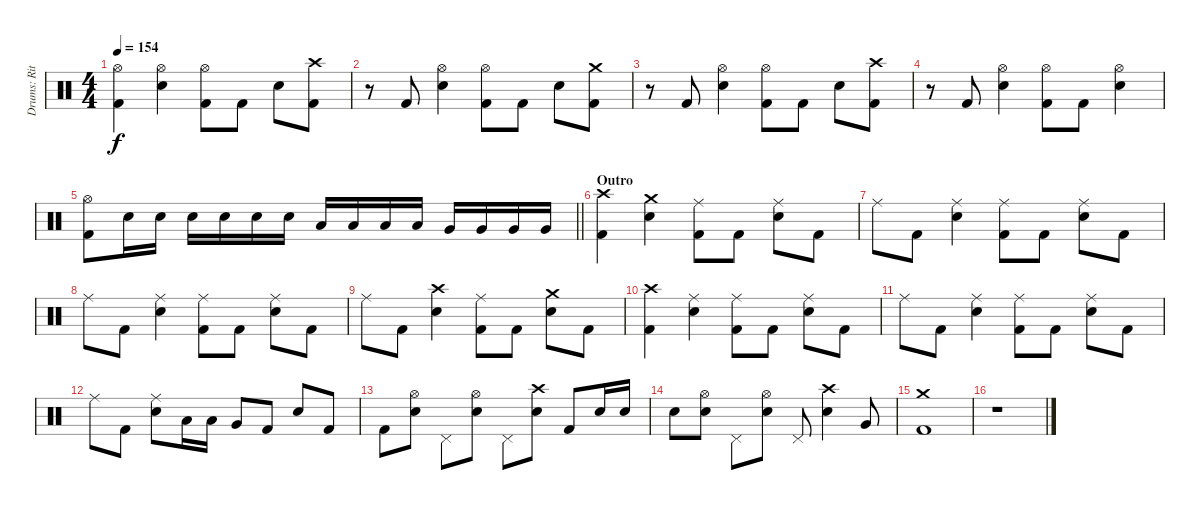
\track ("Drums: Ritsu Tainaka" "Drums: Rit") {instrument percussion}
\staff {score}
\articulation defaults
\ts (4 4)
\tempo 154
\clef neutral
\ks c
("Hi-Hat (open)" "Kick (hit) 2").4{dy f} ("Hi-Hat (open)" "Electric Snare (hit)").4 ("Hi-Hat (open)" "Kick (hit) 2").8 "Kick (hit) 2".8 "Electric Snare (hit)".8 ("Crash high (hit)" "Kick (hit) 2").8 |
r.8 "Kick (hit) 2".8 ("Hi-Hat (open)" "Electric Snare (hit)").4 ("Hi-Hat (open)" "Kick (hit) 2").8 "Kick (hit) 2".8 "Electric Snare (hit)".8 ("Crash medium (hit)" "Kick (hit) 2").8 |
r.8 "Kick (hit) 2".8 ("Hi-Hat (open)" "Electric Snare (hit)").4 ("Hi-Hat (open)" "Kick (hit) 2").8 "Kick (hit) 2".8 "Electric Snare (hit)".8 ("Crash high (hit)" "Kick (hit) 2").8 |
r.8 "Kick (hit) 2".8 ("Hi-Hat (open)" "Electric Snare (hit)").4 ("Hi-Hat (open)" "Kick (hit) 2").8 "Kick (hit) 2".8 ("Hi-Hat (open)" "Electric Snare (hit)").4 |
\barLineRight lightlight
("Hi-Hat (open)" "Kick (hit) 2").8 "Electric Snare (hit)".16 "Electric Snare (hit)".16 "Electric Snare (hit)".16 "Electric Snare (hit)".16 "Electric Snare (hit)".16 "Electric Snare (hit)".16 "Low Tom (hit)".16 "Low Tom (hit)".16 "Low Tom (hit)".16 "Low Tom (hit)".16 "Very Low Tom (hit)".16 "Very Low Tom (hit)".16 "Very Low Tom (hit)".16 "Very Low Tom (hit)".16 |
\section ("" "Outro")
("Crash high (hit)" "Kick (hit) 2").4 ("Crash medium (hit)" "Electric Snare (hit)").4 ("Ride (middle)" "Kick (hit) 2").8 "Kick (hit) 2".8 ("Ride (middle)" "Electric Snare (hit)").8 "Kick (hit) 2".8 |
"Ride (middle)".8 "Kick (hit) 2".8 ("Ride (middle)" "Electric Snare (hit)").4 ("Ride (middle)" "Kick (hit) 2").8 "Kick (hit) 2".8 ("Ride (middle)" "Electric Snare (hit)").8 "Kick (hit) 2".8 |
"Ride (middle)".8 "Kick (hit) 2".8 ("Ride (middle)" "Electric Snare (hit)").4 ("Ride (middle)" "Kick (hit) 2").8 "Kick (hit) 2".8 ("Ride (middle)" "Electric Snare (hit)").8 "Kick (hit) 2".8 |
"Ride (middle)".8 "Kick (hit) 2".8 ("Crash high (hit)" "Electric Snare (hit)").4 ("Ride (middle)" "Kick (hit) 2").8 "Kick (hit) 2".8 ("Crash medium (hit)" "Electric Snare (hit)").8 "Kick (hit) 2".8 |
("Crash high (hit)" "Kick (hit) 2").4 ("Ride (middle)" "Electric Snare (hit)").4 ("Ride (middle)" "Kick (hit) 2").8 "Kick (hit) 2".8 ("Ride (middle)" "Electric Snare (hit)").8 "Kick (hit) 2".8 |
"Ride (middle)".8 "Kick (hit) 2".8 ("Ride (middle)" "Electric Snare (hit)").4 ("Ride (middle)" "Kick (hit) 2").8 "Kick (hit) 2".8 ("Ride (middle)" "Electric Snare (hit)").8 "Kick (hit) 2".8 |
"Ride (middle)".8 "Kick (hit) 2".8 ("Ride (middle)" "Electric Snare (hit)").8 "Low Tom (hit)".16 "Low Tom (hit)".16 "Very Low Tom (hit)".8 "Kick (hit) 2".8 "Electric Snare (hit)".8 "Kick (hit) 2".8 |
"Kick (hit) 2".8 ("Hi-Hat (open)" "Electric Snare (hit)").8 "Pedal Hi-Hat (hit)".8 ("Hi-Hat (open)" "Electric Snare (hit)").8 "Pedal Hi-Hat (hit)".8 ("Crash high (hit)" "Electric Snare (hit)").8 "Kick (hit) 2".8 "Electric Snare (hit)".16 "Electric Snare (hit)".16 |
"Electric Snare (hit)".8 ("Hi-Hat (open)" "Electric Snare (hit)").8 "Pedal Hi-Hat (hit)".8 ("Hi-Hat (open)" "Electric Snare (hit)").8 "Pedal Hi-Hat (hit)".8 ("Crash high (hit)" "Electric Snare (hit)").4 "Very Low Tom (hit)".8 |
("Crash medium (hit)" "Kick (hit) 2").1{volume 8} |
r.1
